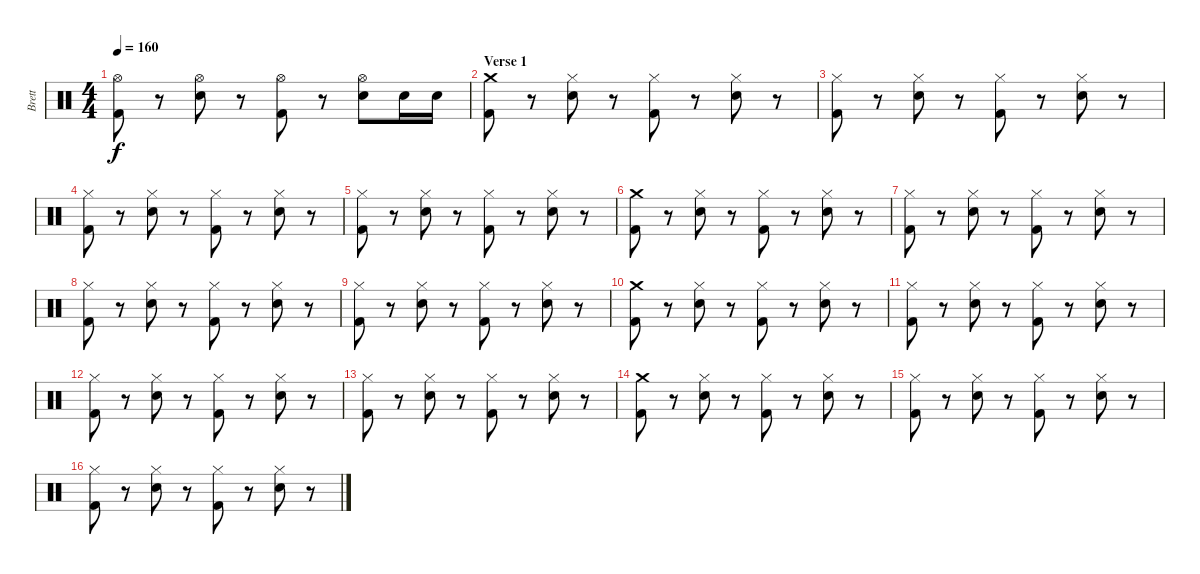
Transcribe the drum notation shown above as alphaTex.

\track ("Brett" "Brett") {instrument percussion}
\staff {score}
\articulation defaults
\ts (4 4)
\tempo 160
\clef neutral
\ks c
("Hi-Hat (open)" "Kick (hit) 2").8{dy f} r.8 ("Hi-Hat (open)" "Snare (hit) 2").8 r.8 ("Hi-Hat (open)" "Kick (hit) 2").8 r.8 ("Hi-Hat (open)" "Snare (hit) 2").8 "Snare (hit) 2".16 "Snare (hit) 2".16 |
\section ("" "Verse 1")
("Crash medium (hit)" "Kick (hit) 2").8 r.8 ("Hi-Hat (closed)" "Snare (hit) 2").8 r.8 ("Hi-Hat (closed)" "Kick (hit) 2").8 r.8 ("Hi-Hat (closed)" "Snare (hit) 2").8 r.8 |
("Hi-Hat (closed)" "Kick (hit) 2").8 r.8 ("Hi-Hat (closed)" "Snare (hit) 2").8 r.8 ("Hi-Hat (closed)" "Kick (hit) 2").8 r.8 ("Hi-Hat (closed)" "Snare (hit) 2").8 r.8 |
("Hi-Hat (closed)" "Kick (hit) 2").8 r.8 ("Hi-Hat (closed)" "Snare (hit) 2").8 r.8 ("Hi-Hat (closed)" "Kick (hit) 2").8 r.8 ("Hi-Hat (closed)" "Snare (hit) 2").8 r.8 |
("Hi-Hat (closed)" "Kick (hit) 2").8 r.8 ("Hi-Hat (closed)" "Snare (hit) 2").8 r.8 ("Hi-Hat (closed)" "Kick (hit) 2").8 r.8 ("Hi-Hat (closed)" "Snare (hit) 2").8 r.8 |
("Crash medium (hit)" "Kick (hit) 2").8 r.8 ("Hi-Hat (closed)" "Snare (hit) 2").8 r.8 ("Hi-Hat (closed)" "Kick (hit) 2").8 r.8 ("Hi-Hat (closed)" "Snare (hit) 2").8 r.8 |
("Hi-Hat (closed)" "Kick (hit) 2").8 r.8 ("Hi-Hat (closed)" "Snare (hit) 2").8 r.8 ("Hi-Hat (closed)" "Kick (hit) 2").8 r.8 ("Hi-Hat (closed)" "Snare (hit) 2").8 r.8 |
("Hi-Hat (closed)" "Kick (hit) 2").8 r.8 ("Hi-Hat (closed)" "Snare (hit) 2").8 r.8 ("Hi-Hat (closed)" "Kick (hit) 2").8 r.8 ("Hi-Hat (closed)" "Snare (hit) 2").8 r.8 |
("Hi-Hat (closed)" "Kick (hit) 2").8 r.8 ("Hi-Hat (closed)" "Snare (hit) 2").8 r.8 ("Hi-Hat (closed)" "Kick (hit) 2").8 r.8 ("Hi-Hat (closed)" "Snare (hit) 2").8 r.8 |
("Crash medium (hit)" "Kick (hit) 2").8 r.8 ("Hi-Hat (closed)" "Snare (hit) 2").8 r.8 ("Hi-Hat (closed)" "Kick (hit) 2").8 r.8 ("Hi-Hat (closed)" "Snare (hit) 2").8 r.8 |
("Hi-Hat (closed)" "Kick (hit) 2").8 r.8 ("Hi-Hat (closed)" "Snare (hit) 2").8 r.8 ("Hi-Hat (closed)" "Kick (hit) 2").8 r.8 ("Hi-Hat (closed)" "Snare (hit) 2").8 r.8 |
("Hi-Hat (closed)" "Kick (hit) 2").8 r.8 ("Hi-Hat (closed)" "Snare (hit) 2").8 r.8 ("Hi-Hat (closed)" "Kick (hit) 2").8 r.8 ("Hi-Hat (closed)" "Snare (hit) 2").8 r.8 |
("Hi-Hat (closed)" "Kick (hit) 2").8 r.8 ("Hi-Hat (closed)" "Snare (hit) 2").8 r.8 ("Hi-Hat (closed)" "Kick (hit) 2").8 r.8 ("Hi-Hat (closed)" "Snare (hit) 2").8 r.8 |
("Crash medium (hit)" "Kick (hit) 2").8 r.8 ("Hi-Hat (closed)" "Snare (hit) 2").8 r.8 ("Hi-Hat (closed)" "Kick (hit) 2").8 r.8 ("Hi-Hat (closed)" "Snare (hit) 2").8 r.8 |
("Hi-Hat (closed)" "Kick (hit) 2").8 r.8 ("Hi-Hat (closed)" "Snare (hit) 2").8 r.8 ("Hi-Hat (closed)" "Kick (hit) 2").8 r.8 ("Hi-Hat (closed)" "Snare (hit) 2").8 r.8 |
("Hi-Hat (closed)" "Kick (hit) 2").8 r.8 ("Hi-Hat (closed)" "Snare (hit) 2").8 r.8 ("Hi-Hat (closed)" "Kick (hit) 2").8 r.8 ("Hi-Hat (closed)" "Snare (hit) 2").8 r.8
